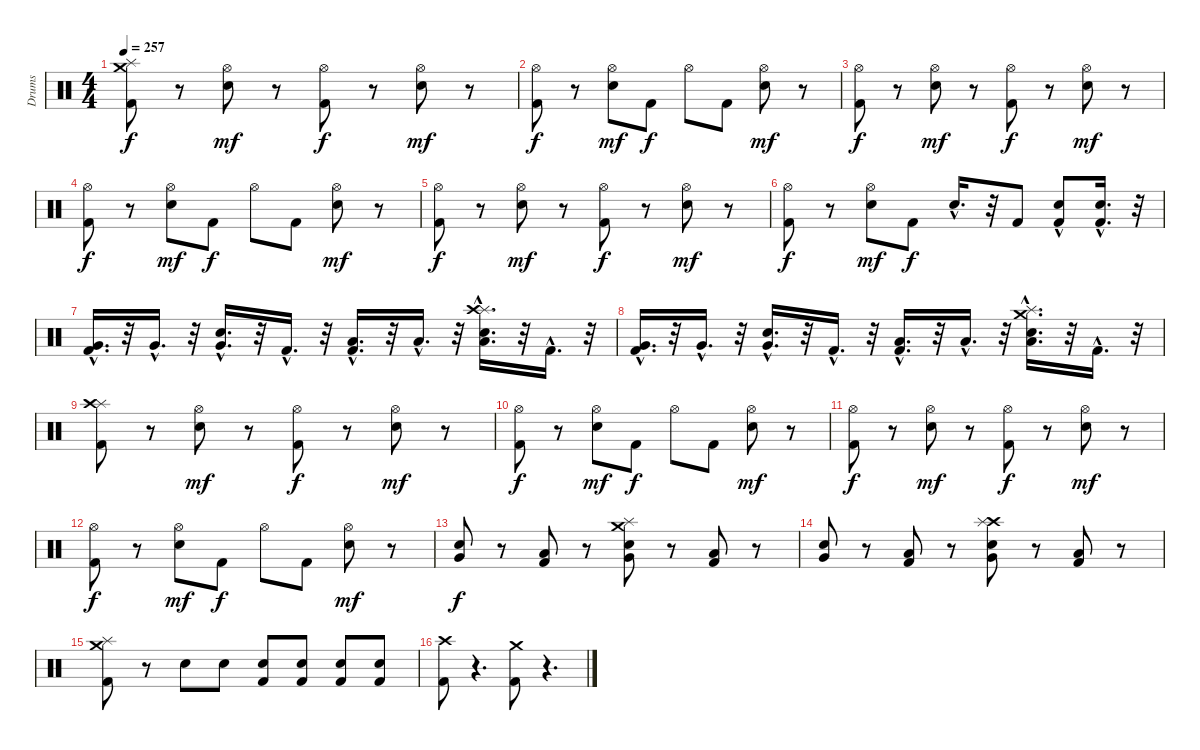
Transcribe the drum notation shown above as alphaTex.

\track ("Drums" "Drums") {instrument percussion}
\staff {score}
\articulation defaults
\ts (4 4)
\tempo 257
\clef neutral
\ks c
("Splash (hit)" "Crash medium (hit)" "Kick (hit) 2").8{dy f} r.8 ("Snare (hit) 2" "Hi-Hat (open)").8{dy mf} r.8 ("Kick (hit) 2" "Hi-Hat (open)").8{dy f} r.8 ("Snare (hit) 2" "Hi-Hat (open)").8{dy mf} r.8 |
("Kick (hit) 2" "Hi-Hat (open)").8{dy f} r.8 ("Snare (hit) 2" "Hi-Hat (open)").8{dy mf} "Kick (hit) 2".8{dy f} "Hi-Hat (open)".8 "Kick (hit) 2".8 ("Snare (hit) 2" "Hi-Hat (open)").8{dy mf} r.8 |
("Hi-Hat (open)" "Kick (hit) 2").8{dy f} r.8 ("Snare (hit) 2" "Hi-Hat (open)").8{dy mf} r.8 ("Kick (hit) 2" "Hi-Hat (open)").8{dy f} r.8 ("Snare (hit) 2" "Hi-Hat (open)").8{dy mf} r.8 |
("Kick (hit) 2" "Hi-Hat (open)").8{dy f} r.8 ("Snare (hit) 2" "Hi-Hat (open)").8{dy mf} "Kick (hit) 2".8{dy f} "Hi-Hat (open)".8 "Kick (hit) 2".8 ("Snare (hit) 2" "Hi-Hat (open)").8{dy mf} r.8 |
("Hi-Hat (open)" "Kick (hit) 2").8{dy f} r.8 ("Snare (hit) 2" "Hi-Hat (open)").8{dy mf} r.8 ("Kick (hit) 2" "Hi-Hat (open)").8{dy f} r.8 ("Snare (hit) 2" "Hi-Hat (open)").8{dy mf} r.8 |
("Kick (hit) 2" "Hi-Hat (open)").8{dy f} r.8 ("Snare (hit) 2" "Hi-Hat (open)").8{dy mf} "Kick (hit) 2".8{dy f} "Snare (hit) 2"{hac}.16{d} r.32 "Kick (hit) 2".8 ("Snare (hit) 2" "Kick (hit) 2"{hac}).8 ("Snare (hit) 2"{hac} "Kick (hit) 2"{hac}).16{d} r.32 |
("Kick (hit) 2"{hac} "Very Low Tom (hit)"{hac}).16{d} r.32 "Very Low Tom (hit)"{hac}.16{d} r.32 ("Snare (hit) 2"{hac} "Very Low Tom (hit)"{hac}).16{d} r.32 "Kick (hit) 2"{hac}.16{d} r.32 ("Kick (hit) 2"{hac} "Low Floor Tom (hit)"{hac}).16{d} r.32 "Low Floor Tom (hit)"{hac}.16{d} r.32 ("Snare (hit) 2"{hac} "Low Floor Tom (hit)"{hac} "Splash (hit)"{hac} "Crash high (hit)"{hac}).16{d} r.32 "Kick (hit) 2"{hac}.16{d} r.32 |
("Kick (hit) 2"{hac} "Very Low Tom (hit)"{hac}).16{d} r.32 "Very Low Tom (hit)"{hac}.16{d} r.32 ("Snare (hit) 2"{hac} "Very Low Tom (hit)"{hac}).16{d} r.32 "Kick (hit) 2"{hac}.16{d} r.32 ("Low Floor Tom (hit)"{hac} "Kick (hit) 2"{hac}).16{d} r.32 "Low Floor Tom (hit)"{hac}.16{d} r.32 ("Snare (hit) 2"{hac} "Low Floor Tom (hit)"{hac} "Splash (hit)"{hac} "Crash medium (hit)"{hac}).16{d} r.32 "Kick (hit) 2"{hac}.16{d} r.32 |
("Splash (hit)" "Crash high (hit)" "Kick (hit) 2").8 r.8 ("Snare (hit) 2" "Hi-Hat (open)").8{dy mf} r.8 ("Kick (hit) 2" "Hi-Hat (open)").8{dy f} r.8 ("Snare (hit) 2" "Hi-Hat (open)").8{dy mf} r.8 |
("Kick (hit) 2" "Hi-Hat (open)").8{dy f} r.8 ("Snare (hit) 2" "Hi-Hat (open)").8{dy mf} "Kick (hit) 2".8{dy f} "Hi-Hat (open)".8 "Kick (hit) 2".8 ("Snare (hit) 2" "Hi-Hat (open)").8{dy mf} r.8 |
("Hi-Hat (open)" "Kick (hit) 2").8{dy f} r.8 ("Snare (hit) 2" "Hi-Hat (open)").8{dy mf} r.8 ("Kick (hit) 2" "Hi-Hat (open)").8{dy f} r.8 ("Snare (hit) 2" "Hi-Hat (open)").8{dy mf} r.8 |
("Kick (hit) 2" "Hi-Hat (open)").8{dy f} r.8 ("Snare (hit) 2" "Hi-Hat (open)").8{dy mf} "Kick (hit) 2".8{dy f} "Hi-Hat (open)".8 "Kick (hit) 2".8 ("Snare (hit) 2" "Hi-Hat (open)").8{dy mf} r.8 |
("Snare (hit) 2" "Very Low Tom (hit)").8{dy f} r.8 ("Kick (hit) 2" "Low Floor Tom (hit)").8 r.8 ("Very Low Tom (hit)" "Snare (hit) 2" "Crash medium (hit)" "Splash (hit)").8 r.8 ("Low Floor Tom (hit)" "Kick (hit) 2").8 r.8 |
("Snare (hit) 2" "Very Low Tom (hit)").8 r.8 ("Kick (hit) 2" "Low Floor Tom (hit)").8 r.8 ("Very Low Tom (hit)" "Snare (hit) 2" "Crash high (hit)" "Splash (hit)").8 r.8 ("Low Floor Tom (hit)" "Kick (hit) 2").8 r.8 |
("Kick (hit) 2" "Splash (hit)" "Crash medium (hit)").8 r.8 "Snare (hit) 2".8 "Snare (hit) 2".8 ("Snare (hit) 2" "Kick (hit) 2").8 ("Snare (hit) 2" "Kick (hit) 2").8 ("Snare (hit) 2" "Kick (hit) 2").8 ("Snare (hit) 2" "Kick (hit) 2").8 |
("Crash high (hit)" "Kick (hit) 2").8 r.4{d} ("Crash medium (hit)" "Kick (hit) 2").8 r.4{d}
